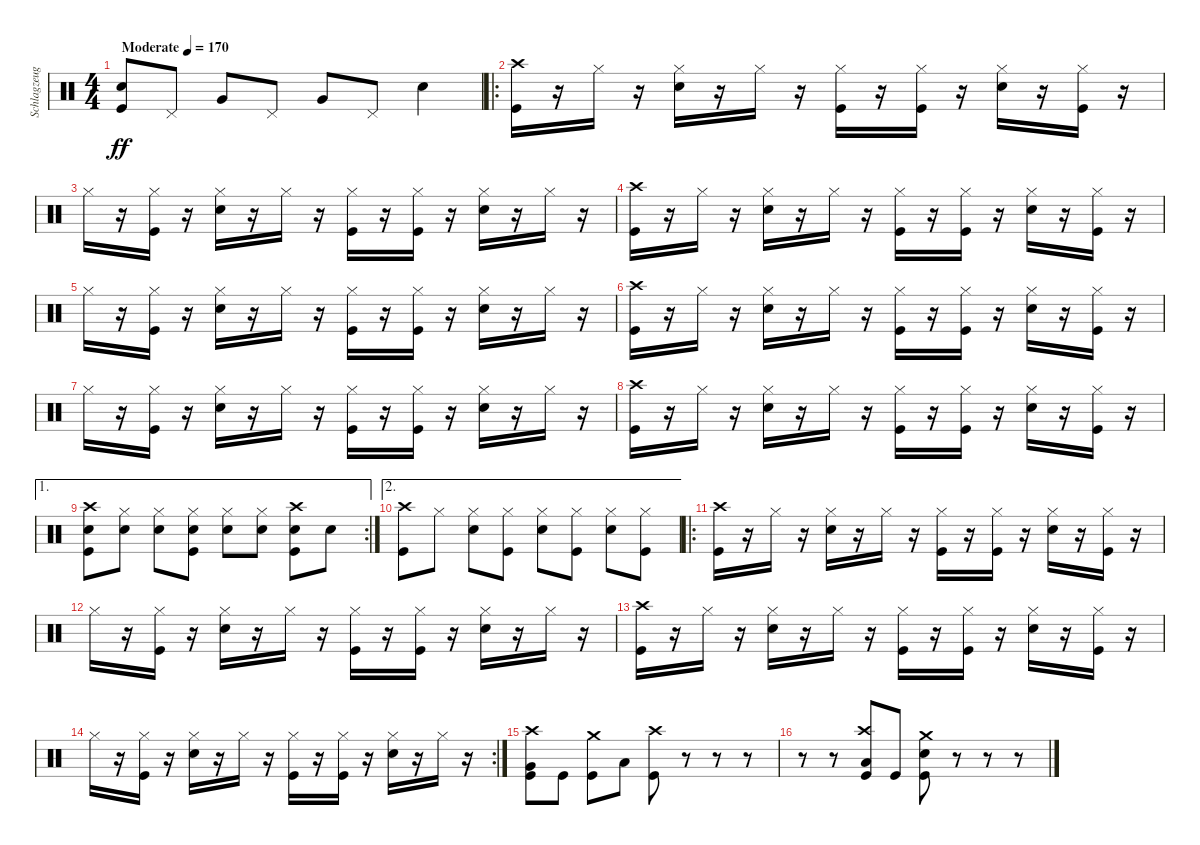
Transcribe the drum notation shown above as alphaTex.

\track ("Schlagzeug" "Schlagzeug") {instrument percussion}
\staff {score}
\articulation defaults
\ts (4 4)
\tempo (170 "Moderate")
\clef neutral
\ks c
("Snare (hit) 2" "Kick (hit)").8{dy ff} "Pedal Hi-Hat (hit)".8 "Very Low Tom (hit)".8 "Pedal Hi-Hat (hit)".8 "Very Low Tom (hit)".8 "Pedal Hi-Hat (hit)".8 "Snare (hit) 2".4 |
\ro
("Crash high (hit)" "Kick (hit)").16 r.16 "Hi-Hat (closed)".16 r.16 ("Hi-Hat (closed)" "Snare (hit) 2").16 r.16 "Hi-Hat (closed)".16 r.16 ("Hi-Hat (closed)" "Kick (hit)").16 r.16 ("Hi-Hat (closed)" "Kick (hit)").16 r.16 ("Hi-Hat (closed)" "Snare (hit) 2").16 r.16 ("Hi-Hat (closed)" "Kick (hit)").16 r.16 |
"Hi-Hat (closed)".16 r.16 ("Hi-Hat (closed)" "Kick (hit)").16 r.16 ("Hi-Hat (closed)" "Snare (hit) 2").16 r.16 "Hi-Hat (closed)".16 r.16 ("Hi-Hat (closed)" "Kick (hit)").16 r.16 ("Hi-Hat (closed)" "Kick (hit)").16 r.16 ("Hi-Hat (closed)" "Snare (hit) 2").16 r.16 "Hi-Hat (closed)".16 r.16 |
("Crash high (hit)" "Kick (hit)").16 r.16 "Hi-Hat (closed)".16 r.16 ("Hi-Hat (closed)" "Snare (hit) 2").16 r.16 "Hi-Hat (closed)".16 r.16 ("Hi-Hat (closed)" "Kick (hit)").16 r.16 ("Hi-Hat (closed)" "Kick (hit)").16 r.16 ("Hi-Hat (closed)" "Snare (hit) 2").16 r.16 ("Hi-Hat (closed)" "Kick (hit)").16 r.16 |
"Hi-Hat (closed)".16 r.16 ("Hi-Hat (closed)" "Kick (hit)").16 r.16 ("Hi-Hat (closed)" "Snare (hit) 2").16 r.16 "Hi-Hat (closed)".16 r.16 ("Hi-Hat (closed)" "Kick (hit)").16 r.16 ("Hi-Hat (closed)" "Kick (hit)").16 r.16 ("Hi-Hat (closed)" "Snare (hit) 2").16 r.16 "Hi-Hat (closed)".16 r.16 |
("Crash high (hit)" "Kick (hit)").16 r.16 "Hi-Hat (closed)".16 r.16 ("Hi-Hat (closed)" "Snare (hit) 2").16 r.16 "Hi-Hat (closed)".16 r.16 ("Hi-Hat (closed)" "Kick (hit)").16 r.16 ("Hi-Hat (closed)" "Kick (hit)").16 r.16 ("Hi-Hat (closed)" "Snare (hit) 2").16 r.16 ("Hi-Hat (closed)" "Kick (hit)").16 r.16 |
"Hi-Hat (closed)".16 r.16 ("Hi-Hat (closed)" "Kick (hit)").16 r.16 ("Hi-Hat (closed)" "Snare (hit) 2").16 r.16 "Hi-Hat (closed)".16 r.16 ("Hi-Hat (closed)" "Kick (hit)").16 r.16 ("Hi-Hat (closed)" "Kick (hit)").16 r.16 ("Hi-Hat (closed)" "Snare (hit) 2").16 r.16 "Hi-Hat (closed)".16 r.16 |
("Crash high (hit)" "Kick (hit)").16 r.16 "Hi-Hat (closed)".16 r.16 ("Hi-Hat (closed)" "Snare (hit) 2").16 r.16 "Hi-Hat (closed)".16 r.16 ("Hi-Hat (closed)" "Kick (hit)").16 r.16 ("Hi-Hat (closed)" "Kick (hit)").16 r.16 ("Hi-Hat (closed)" "Snare (hit) 2").16 r.16 ("Hi-Hat (closed)" "Kick (hit)").16 r.16 |
\ae 1
\rc 2
("Crash high (hit)" "Snare (hit) 2" "Kick (hit)").8 ("Hi-Hat (closed)" "Snare (hit) 2").8 ("Hi-Hat (closed)" "Snare (hit) 2").8 ("Hi-Hat (closed)" "Snare (hit) 2" "Kick (hit)").8 ("Hi-Hat (closed)" "Snare (hit) 2").8 ("Hi-Hat (closed)" "Snare (hit) 2").8 ("Crash high (hit)" "Snare (hit) 2" "Kick (hit)").8 "Snare (hit) 2".8 |
\ae 2
("Crash high (hit)" "Kick (hit)").8 "Hi-Hat (closed)".8 ("Hi-Hat (closed)" "Snare (hit) 2").8 ("Hi-Hat (closed)" "Kick (hit)").8 ("Hi-Hat (closed)" "Snare (hit) 2").8 ("Hi-Hat (closed)" "Kick (hit)").8 ("Hi-Hat (closed)" "Snare (hit) 2").8 ("Hi-Hat (closed)" "Kick (hit)").8 |
\ro
("Crash high (hit)" "Kick (hit)").16 r.16 "Hi-Hat (closed)".16 r.16 ("Hi-Hat (closed)" "Snare (hit) 2").16 r.16 "Hi-Hat (closed)".16 r.16 ("Hi-Hat (closed)" "Kick (hit)").16 r.16 ("Hi-Hat (closed)" "Kick (hit)").16 r.16 ("Hi-Hat (closed)" "Snare (hit) 2").16 r.16 ("Hi-Hat (closed)" "Kick (hit)").16 r.16 |
"Hi-Hat (closed)".16 r.16 ("Hi-Hat (closed)" "Kick (hit)").16 r.16 ("Hi-Hat (closed)" "Snare (hit) 2").16 r.16 "Hi-Hat (closed)".16 r.16 ("Hi-Hat (closed)" "Kick (hit)").16 r.16 ("Hi-Hat (closed)" "Kick (hit)").16 r.16 ("Hi-Hat (closed)" "Snare (hit) 2").16 r.16 "Hi-Hat (closed)".16 r.16 |
("Crash high (hit)" "Kick (hit)").16 r.16 "Hi-Hat (closed)".16 r.16 ("Hi-Hat (closed)" "Snare (hit) 2").16 r.16 "Hi-Hat (closed)".16 r.16 ("Hi-Hat (closed)" "Kick (hit)").16 r.16 ("Hi-Hat (closed)" "Kick (hit)").16 r.16 ("Hi-Hat (closed)" "Snare (hit) 2").16 r.16 ("Hi-Hat (closed)" "Kick (hit)").16 r.16 |
\rc 2 "Hi-Hat (closed)".16
r.16 ("Hi-Hat (closed)" "Kick (hit)").16 r.16 ("Hi-Hat (closed)" "Snare (hit) 2").16 r.16 "Hi-Hat (closed)".16 r.16 ("Hi-Hat (closed)" "Kick (hit)").16 r.16 ("Hi-Hat (closed)" "Kick (hit)").16 r.16 ("Hi-Hat (closed)" "Snare (hit) 2").16 r.16 "Hi-Hat (closed)".16 r.16 |
("Crash high (hit)" "Very Low Tom (hit)" "Kick (hit)").8 "Kick (hit)".8 ("Crash medium (hit)" "Kick (hit)").8 "Low Floor Tom (hit)".8 ("Crash high (hit)" "Kick (hit)").8 r.8 r.8 r.8 |
r.8 r.8 ("Crash high (hit)" "Low Floor Tom (hit)" "Kick (hit)").8 "Kick (hit)".8 ("Crash medium (hit)" "Snare (hit) 2" "Kick (hit)").8 r.8 r.8 r.8
